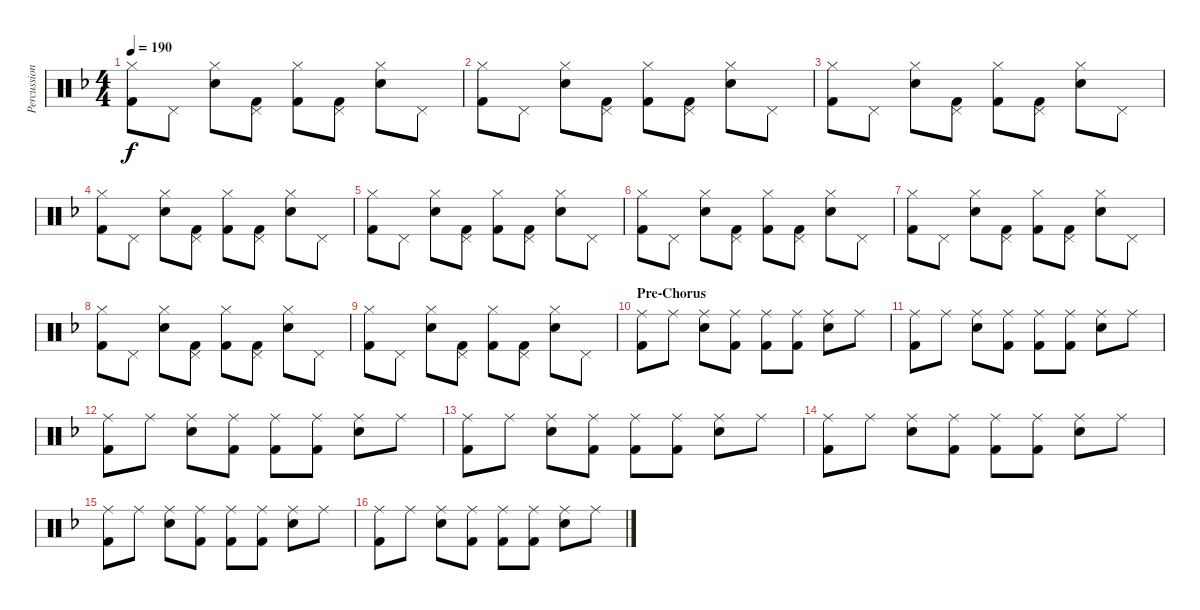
\track ("Percussion" "Percussion") {instrument percussion}
\staff {score}
\articulation defaults
\ts (4 4)
\tempo 190
\clef neutral
\ks f
("Hi-Hat (closed)" "Kick (hit) 2").8{dy f} "Pedal Hi-Hat (hit)".8 ("Hi-Hat (closed)" "Snare (hit) 2").8 ("Pedal Hi-Hat (hit)" "Kick (hit) 2").8 ("Hi-Hat (closed)" "Kick (hit) 2").8 ("Pedal Hi-Hat (hit)" "Kick (hit) 2").8 ("Hi-Hat (closed)" "Snare (hit) 2").8 "Pedal Hi-Hat (hit)".8 |
("Hi-Hat (closed)" "Kick (hit) 2").8 "Pedal Hi-Hat (hit)".8 ("Hi-Hat (closed)" "Snare (hit) 2").8 ("Pedal Hi-Hat (hit)" "Kick (hit) 2").8 ("Hi-Hat (closed)" "Kick (hit) 2").8 ("Pedal Hi-Hat (hit)" "Kick (hit) 2").8 ("Hi-Hat (closed)" "Snare (hit) 2").8 "Pedal Hi-Hat (hit)".8 |
("Hi-Hat (closed)" "Kick (hit) 2").8 "Pedal Hi-Hat (hit)".8 ("Hi-Hat (closed)" "Snare (hit) 2").8 ("Pedal Hi-Hat (hit)" "Kick (hit) 2").8 ("Hi-Hat (closed)" "Kick (hit) 2").8 ("Pedal Hi-Hat (hit)" "Kick (hit) 2").8 ("Hi-Hat (closed)" "Snare (hit) 2").8 "Pedal Hi-Hat (hit)".8 |
("Hi-Hat (closed)" "Kick (hit) 2").8 "Pedal Hi-Hat (hit)".8 ("Hi-Hat (closed)" "Snare (hit) 2").8 ("Pedal Hi-Hat (hit)" "Kick (hit) 2").8 ("Hi-Hat (closed)" "Kick (hit) 2").8 ("Pedal Hi-Hat (hit)" "Kick (hit) 2").8 ("Hi-Hat (closed)" "Snare (hit) 2").8 "Pedal Hi-Hat (hit)".8 |
("Hi-Hat (closed)" "Kick (hit) 2").8 "Pedal Hi-Hat (hit)".8 ("Hi-Hat (closed)" "Snare (hit) 2").8 ("Pedal Hi-Hat (hit)" "Kick (hit) 2").8 ("Hi-Hat (closed)" "Kick (hit) 2").8 ("Pedal Hi-Hat (hit)" "Kick (hit) 2").8 ("Hi-Hat (closed)" "Snare (hit) 2").8 "Pedal Hi-Hat (hit)".8 |
("Hi-Hat (closed)" "Kick (hit) 2").8 "Pedal Hi-Hat (hit)".8 ("Hi-Hat (closed)" "Snare (hit) 2").8 ("Pedal Hi-Hat (hit)" "Kick (hit) 2").8 ("Hi-Hat (closed)" "Kick (hit) 2").8 ("Pedal Hi-Hat (hit)" "Kick (hit) 2").8 ("Hi-Hat (closed)" "Snare (hit) 2").8 "Pedal Hi-Hat (hit)".8 |
("Hi-Hat (closed)" "Kick (hit) 2").8 "Pedal Hi-Hat (hit)".8 ("Hi-Hat (closed)" "Snare (hit) 2").8 ("Pedal Hi-Hat (hit)" "Kick (hit) 2").8 ("Hi-Hat (closed)" "Kick (hit) 2").8 ("Pedal Hi-Hat (hit)" "Kick (hit) 2").8 ("Hi-Hat (closed)" "Snare (hit) 2").8 "Pedal Hi-Hat (hit)".8 |
("Hi-Hat (closed)" "Kick (hit) 2").8 "Pedal Hi-Hat (hit)".8 ("Hi-Hat (closed)" "Snare (hit) 2").8 ("Pedal Hi-Hat (hit)" "Kick (hit) 2").8 ("Hi-Hat (closed)" "Kick (hit) 2").8 ("Pedal Hi-Hat (hit)" "Kick (hit) 2").8 ("Hi-Hat (closed)" "Snare (hit) 2").8 "Pedal Hi-Hat (hit)".8 |
("Hi-Hat (closed)" "Kick (hit) 2").8 "Pedal Hi-Hat (hit)".8 ("Hi-Hat (closed)" "Snare (hit) 2").8 ("Pedal Hi-Hat (hit)" "Kick (hit) 2").8 ("Hi-Hat (closed)" "Kick (hit) 2").8 ("Pedal Hi-Hat (hit)" "Kick (hit) 2").8 ("Hi-Hat (closed)" "Snare (hit) 2").8 "Pedal Hi-Hat (hit)".8 |
\section ("" "Pre-Chorus")
("Ride (middle)" "Kick (hit) 2").8 "Ride (middle)".8 ("Ride (middle)" "Snare (hit) 2").8 ("Ride (middle)" "Kick (hit) 2").8 ("Ride (middle)" "Kick (hit) 2").8 ("Ride (middle)" "Kick (hit) 2").8 ("Ride (middle)" "Snare (hit) 2").8 "Ride (middle)".8 |
("Ride (middle)" "Kick (hit) 2").8 "Ride (middle)".8 ("Ride (middle)" "Snare (hit) 2").8 ("Ride (middle)" "Kick (hit) 2").8 ("Ride (middle)" "Kick (hit) 2").8 ("Ride (middle)" "Kick (hit) 2").8 ("Ride (middle)" "Snare (hit) 2").8 "Ride (middle)".8 |
("Ride (middle)" "Kick (hit) 2").8 "Ride (middle)".8 ("Ride (middle)" "Snare (hit) 2").8 ("Ride (middle)" "Kick (hit) 2").8 ("Ride (middle)" "Kick (hit) 2").8 ("Ride (middle)" "Kick (hit) 2").8 ("Ride (middle)" "Snare (hit) 2").8 "Ride (middle)".8 |
("Ride (middle)" "Kick (hit) 2").8 "Ride (middle)".8 ("Ride (middle)" "Snare (hit) 2").8 ("Ride (middle)" "Kick (hit) 2").8 ("Ride (middle)" "Kick (hit) 2").8 ("Ride (middle)" "Kick (hit) 2").8 ("Ride (middle)" "Snare (hit) 2").8 "Ride (middle)".8 |
("Ride (middle)" "Kick (hit) 2").8 "Ride (middle)".8 ("Ride (middle)" "Snare (hit) 2").8 ("Ride (middle)" "Kick (hit) 2").8 ("Ride (middle)" "Kick (hit) 2").8 ("Ride (middle)" "Kick (hit) 2").8 ("Ride (middle)" "Snare (hit) 2").8 "Ride (middle)".8 |
("Ride (middle)" "Kick (hit) 2").8 "Ride (middle)".8 ("Ride (middle)" "Snare (hit) 2").8 ("Ride (middle)" "Kick (hit) 2").8 ("Ride (middle)" "Kick (hit) 2").8 ("Ride (middle)" "Kick (hit) 2").8 ("Ride (middle)" "Snare (hit) 2").8 "Ride (middle)".8 |
("Ride (middle)" "Kick (hit) 2").8 "Ride (middle)".8 ("Ride (middle)" "Snare (hit) 2").8 ("Ride (middle)" "Kick (hit) 2").8 ("Ride (middle)" "Kick (hit) 2").8 ("Ride (middle)" "Kick (hit) 2").8 ("Ride (middle)" "Snare (hit) 2").8 "Ride (middle)".8
